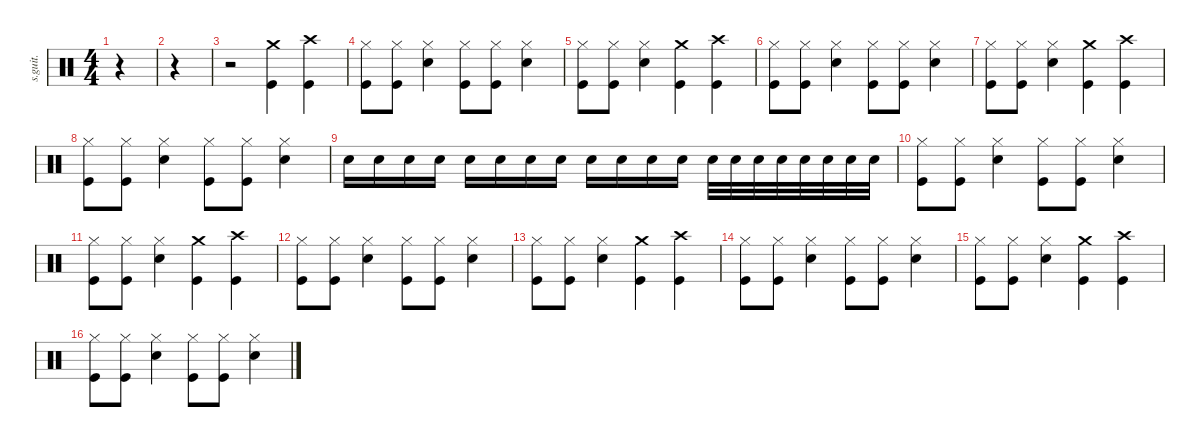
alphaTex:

\defaultSystemsLayout 4
\hideDynamics
\bracketExtendMode nobrackets
\track ("batteire(jesus bonehead)" "s.guit.") {instrument percussion}
\staff {score}
\articulation defaults
\ts (4 4)
\beaming (8 2 2 2 2)
\tempo (125 hide)
\clef neutral
\ks c
r.4{dy f} |
r.4 |
r.2 ("Crash medium (hit)" "Kick (hit)").4 ("Crash high (hit)" "Kick (hit)").4 |
("Hi-Hat (closed)" "Kick (hit)").8 ("Hi-Hat (closed)" "Kick (hit)").8 ("Hi-Hat (closed)" "Snare (hit) 2").4 ("Hi-Hat (closed)" "Kick (hit)").8 ("Hi-Hat (closed)" "Kick (hit)").8 ("Hi-Hat (closed)" "Snare (hit) 2").4 |
("Hi-Hat (closed)" "Kick (hit)").8 ("Hi-Hat (closed)" "Kick (hit)").8 ("Hi-Hat (closed)" "Snare (hit) 2").4 ("Crash medium (hit)" "Kick (hit)").4 ("Crash high (hit)" "Kick (hit)").4 |
("Hi-Hat (closed)" "Kick (hit)").8 ("Hi-Hat (closed)" "Kick (hit)").8 ("Hi-Hat (closed)" "Snare (hit) 2").4 ("Hi-Hat (closed)" "Kick (hit)").8 ("Hi-Hat (closed)" "Kick (hit)").8 ("Hi-Hat (closed)" "Snare (hit) 2").4 |
("Hi-Hat (closed)" "Kick (hit)").8 ("Hi-Hat (closed)" "Kick (hit)").8 ("Hi-Hat (closed)" "Snare (hit) 2").4 ("Crash medium (hit)" "Kick (hit)").4 ("Crash high (hit)" "Kick (hit)").4 |
("Hi-Hat (closed)" "Kick (hit)").8 ("Hi-Hat (closed)" "Kick (hit)").8 ("Hi-Hat (closed)" "Snare (hit) 2").4 ("Hi-Hat (closed)" "Kick (hit)").8 ("Hi-Hat (closed)" "Kick (hit)").8 ("Hi-Hat (closed)" "Snare (hit) 2").4 |
"Snare (hit) 2".16 "Snare (hit) 2".16 "Snare (hit) 2".16 "Snare (hit) 2".16 "Snare (hit) 2".16 "Snare (hit) 2".16 "Snare (hit) 2".16 "Snare (hit) 2".16 "Snare (hit) 2".16 "Snare (hit) 2".16 "Snare (hit) 2".16 "Snare (hit) 2".16 "Snare (hit) 2".32 "Snare (hit) 2".32 "Snare (hit) 2".32 "Snare (hit) 2".32 "Snare (hit) 2".32 "Snare (hit) 2".32 "Snare (hit) 2".32 "Snare (hit) 2".32 |
("Hi-Hat (closed)" "Kick (hit)").8 ("Hi-Hat (closed)" "Kick (hit)").8 ("Hi-Hat (closed)" "Snare (hit) 2").4 ("Hi-Hat (closed)" "Kick (hit)").8 ("Hi-Hat (closed)" "Kick (hit)").8 ("Hi-Hat (closed)" "Snare (hit) 2").4 |
("Hi-Hat (closed)" "Kick (hit)").8 ("Hi-Hat (closed)" "Kick (hit)").8 ("Hi-Hat (closed)" "Snare (hit) 2").4 ("Crash medium (hit)" "Kick (hit)").4 ("Crash high (hit)" "Kick (hit)").4 |
("Hi-Hat (closed)" "Kick (hit)").8 ("Hi-Hat (closed)" "Kick (hit)").8 ("Hi-Hat (closed)" "Snare (hit) 2").4 ("Hi-Hat (closed)" "Kick (hit)").8 ("Hi-Hat (closed)" "Kick (hit)").8 ("Hi-Hat (closed)" "Snare (hit) 2").4 |
("Hi-Hat (closed)" "Kick (hit)").8 ("Hi-Hat (closed)" "Kick (hit)").8 ("Hi-Hat (closed)" "Snare (hit) 2").4 ("Crash medium (hit)" "Kick (hit)").4 ("Crash high (hit)" "Kick (hit)").4 |
("Hi-Hat (closed)" "Kick (hit)").8 ("Hi-Hat (closed)" "Kick (hit)").8 ("Hi-Hat (closed)" "Snare (hit) 2").4 ("Hi-Hat (closed)" "Kick (hit)").8 ("Hi-Hat (closed)" "Kick (hit)").8 ("Hi-Hat (closed)" "Snare (hit) 2").4 |
("Hi-Hat (closed)" "Kick (hit)").8 ("Hi-Hat (closed)" "Kick (hit)").8 ("Hi-Hat (closed)" "Snare (hit) 2").4 ("Crash medium (hit)" "Kick (hit)").4 ("Crash high (hit)" "Kick (hit)").4 |
("Hi-Hat (closed)" "Kick (hit)").8 ("Hi-Hat (closed)" "Kick (hit)").8 ("Hi-Hat (closed)" "Snare (hit) 2").4 ("Hi-Hat (closed)" "Kick (hit)").8 ("Hi-Hat (closed)" "Kick (hit)").8 ("Hi-Hat (closed)" "Snare (hit) 2").4
